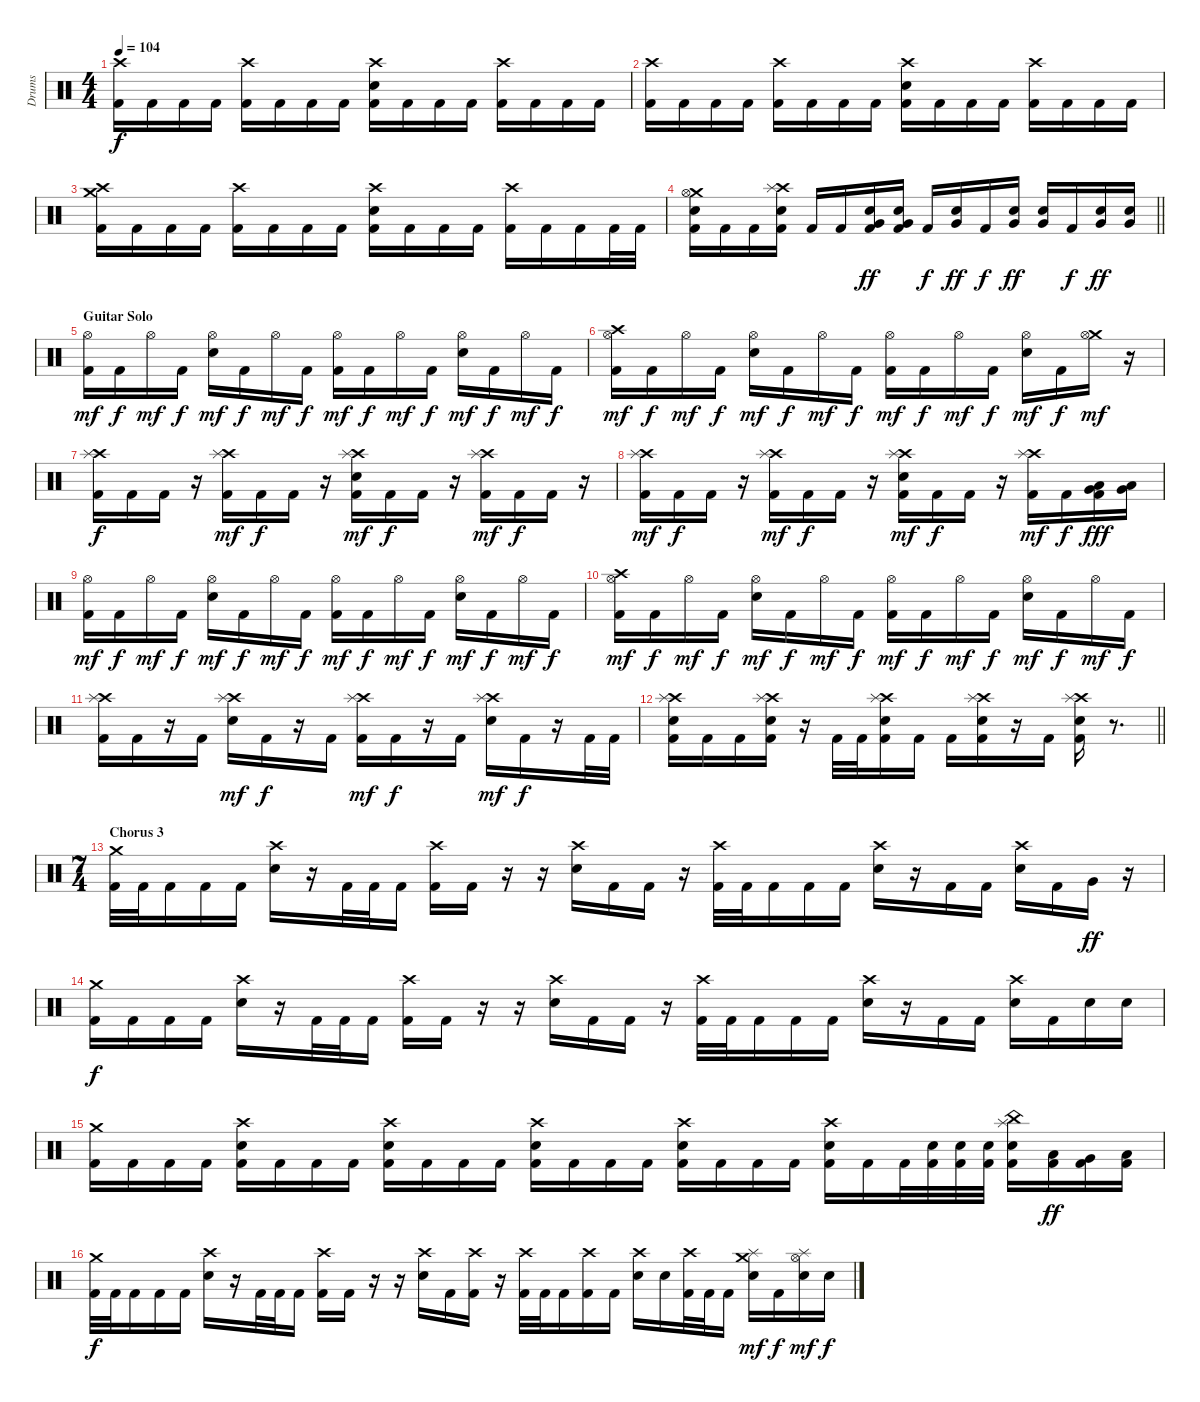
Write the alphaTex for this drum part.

\track ("Drums" "Drums") {instrument percussion}
\staff {score}
\articulation defaults
\ts (4 4)
\tempo 104
\clef neutral
\ks c
("Crash high (hit)" "Kick (hit) 2").16{dy f} "Kick (hit) 2".16 "Kick (hit) 2".16 "Kick (hit) 2".16 ("Crash high (hit)" "Kick (hit) 2").16 "Kick (hit) 2".16 "Kick (hit) 2".16 "Kick (hit) 2".16 ("Crash high (hit)" "Snare (hit) 2" "Kick (hit) 2").16 "Kick (hit) 2".16 "Kick (hit) 2".16 "Kick (hit) 2".16 ("Crash high (hit)" "Kick (hit) 2").16 "Kick (hit) 2".16 "Kick (hit) 2".16 "Kick (hit) 2".16 |
("Crash high (hit)" "Kick (hit) 2").16 "Kick (hit) 2".16 "Kick (hit) 2".16 "Kick (hit) 2".16 ("Crash high (hit)" "Kick (hit) 2").16 "Kick (hit) 2".16 "Kick (hit) 2".16 "Kick (hit) 2".16 ("Crash high (hit)" "Snare (hit) 2" "Kick (hit) 2").16 "Kick (hit) 2".16 "Kick (hit) 2".16 "Kick (hit) 2".16 ("Crash high (hit)" "Kick (hit) 2").16 "Kick (hit) 2".16 "Kick (hit) 2".16 "Kick (hit) 2".16 |
("Crash high (hit)" "Crash medium (hit)" "Kick (hit) 2").16 "Kick (hit) 2".16 "Kick (hit) 2".16 "Kick (hit) 2".16 ("Crash high (hit)" "Kick (hit) 2").16 "Kick (hit) 2".16 "Kick (hit) 2".16 "Kick (hit) 2".16 ("Crash high (hit)" "Snare (hit) 2" "Kick (hit) 2").16 "Kick (hit) 2".16 "Kick (hit) 2".16 "Kick (hit) 2".16 ("Crash high (hit)" "Kick (hit) 2").16 "Kick (hit) 2".16 "Kick (hit) 2".16 "Kick (hit) 2".32 "Kick (hit) 2".32 |
\barLineRight lightlight
("Crash medium (hit)" "Hi-Hat (open)" "Snare (hit) 2" "Kick (hit) 2").16 "Kick (hit) 2".16 "Kick (hit) 2".16 ("Crash high (hit)" "Splash (hit)" "Snare (hit) 2" "Kick (hit) 2").16 "Kick (hit) 2".16 "Kick (hit) 2".16 ("Very Low Tom (hit)" "Snare (hit) 2" "Kick (hit) 2").16{dy ff} ("Very Low Tom (hit)" "Snare (hit) 2" "Kick (hit) 2").16 "Kick (hit) 2".16{dy f} ("Very Low Tom (hit)" "Snare (hit) 2").16{dy ff} "Kick (hit) 2".16{dy f} ("Very Low Tom (hit)" "Snare (hit) 2").16{dy ff} ("Very Low Tom (hit)" "Snare (hit) 2").16 "Kick (hit) 2".16{dy f} ("Very Low Tom (hit)" "Snare (hit) 2").16{dy ff} ("Very Low Tom (hit)" "Snare (hit) 2").16 |
\section ("" "Guitar Solo")
("Hi-Hat (open)" "Kick (hit) 2").16{dy mf} "Kick (hit) 2".16{dy f} "Hi-Hat (open)".16{dy mf} "Kick (hit) 2".16{dy f} ("Hi-Hat (open)" "Snare (hit) 2").16{dy mf} "Kick (hit) 2".16{dy f} "Hi-Hat (open)".16{dy mf} "Kick (hit) 2".16{dy f} ("Hi-Hat (open)" "Kick (hit) 2").16{dy mf} "Kick (hit) 2".16{dy f} "Hi-Hat (open)".16{dy mf} "Kick (hit) 2".16{dy f} ("Hi-Hat (open)" "Snare (hit) 2").16{dy mf} "Kick (hit) 2".16{dy f} "Hi-Hat (open)".16{dy mf} "Kick (hit) 2".16{dy f} |
("Crash high (hit)" "Hi-Hat (open)" "Kick (hit) 2").16{dy mf} "Kick (hit) 2".16{dy f} "Hi-Hat (open)".16{dy mf} "Kick (hit) 2".16{dy f} ("Hi-Hat (open)" "Snare (hit) 2").16{dy mf} "Kick (hit) 2".16{dy f} "Hi-Hat (open)".16{dy mf} "Kick (hit) 2".16{dy f} ("Hi-Hat (open)" "Kick (hit) 2").16{dy mf} "Kick (hit) 2".16{dy f} "Hi-Hat (open)".16{dy mf} "Kick (hit) 2".16{dy f} ("Hi-Hat (open)" "Snare (hit) 2").16{dy mf} "Kick (hit) 2".16{dy f} ("Crash medium (hit)" "Hi-Hat (open)").16{dy mf} r.16 |
("Crash high (hit)" "Splash (hit)" "Kick (hit) 2").16{dy f} "Kick (hit) 2".16 "Kick (hit) 2".16 r.16 ("Crash high (hit)" "Splash (hit)" "Kick (hit) 2").16{dy mf} "Kick (hit) 2".16{dy f} "Kick (hit) 2".16 r.16 ("Crash high (hit)" "Splash (hit)" "Snare (hit) 2" "Kick (hit) 2").16{dy mf} "Kick (hit) 2".16{dy f} "Kick (hit) 2".16 r.16 ("Crash high (hit)" "Splash (hit)" "Kick (hit) 2").16{dy mf} "Kick (hit) 2".16{dy f} "Kick (hit) 2".16 r.16 |
("Crash high (hit)" "Splash (hit)" "Kick (hit) 2").16{dy mf} "Kick (hit) 2".16{dy f} "Kick (hit) 2".16 r.16 ("Crash high (hit)" "Splash (hit)" "Kick (hit) 2").16{dy mf} "Kick (hit) 2".16{dy f} "Kick (hit) 2".16 r.16 ("Crash high (hit)" "Splash (hit)" "Snare (hit) 2" "Kick (hit) 2").16{dy mf} "Kick (hit) 2".16{dy f} "Kick (hit) 2".16 r.16 ("Crash high (hit)" "Splash (hit)" "Kick (hit) 2").16{dy mf} "Kick (hit) 2".16{dy f} ("Very Low Tom (hit)" "Low Floor Tom (hit)" "Kick (hit) 2").16{dy fff} ("Very Low Tom (hit)" "Low Floor Tom (hit)").16 |
("Hi-Hat (open)" "Kick (hit) 2").16{dy mf} "Kick (hit) 2".16{dy f} "Hi-Hat (open)".16{dy mf} "Kick (hit) 2".16{dy f} ("Hi-Hat (open)" "Snare (hit) 2").16{dy mf} "Kick (hit) 2".16{dy f} "Hi-Hat (open)".16{dy mf} "Kick (hit) 2".16{dy f} ("Hi-Hat (open)" "Kick (hit) 2").16{dy mf} "Kick (hit) 2".16{dy f} "Hi-Hat (open)".16{dy mf} "Kick (hit) 2".16{dy f} ("Hi-Hat (open)" "Snare (hit) 2").16{dy mf} "Kick (hit) 2".16{dy f} "Hi-Hat (open)".16{dy mf} "Kick (hit) 2".16{dy f} |
("Crash high (hit)" "Hi-Hat (open)" "Kick (hit) 2").16{dy mf} "Kick (hit) 2".16{dy f} "Hi-Hat (open)".16{dy mf} "Kick (hit) 2".16{dy f} ("Hi-Hat (open)" "Snare (hit) 2").16{dy mf} "Kick (hit) 2".16{dy f} "Hi-Hat (open)".16{dy mf} "Kick (hit) 2".16{dy f} ("Hi-Hat (open)" "Kick (hit) 2").16{dy mf} "Kick (hit) 2".16{dy f} "Hi-Hat (open)".16{dy mf} "Kick (hit) 2".16{dy f} ("Hi-Hat (open)" "Snare (hit) 2").16{dy mf} "Kick (hit) 2".16{dy f} "Hi-Hat (open)".16{dy mf} "Kick (hit) 2".16{dy f} |
("Crash high (hit)" "Splash (hit)" "Kick (hit) 2").16 "Kick (hit) 2".16 r.16 "Kick (hit) 2".16 ("Crash high (hit)" "Splash (hit)" "Snare (hit) 2").16{dy mf} "Kick (hit) 2".16{dy f} r.16 "Kick (hit) 2".16 ("Crash high (hit)" "Splash (hit)" "Kick (hit) 2").16{dy mf} "Kick (hit) 2".16{dy f} r.16 "Kick (hit) 2".16 ("Crash high (hit)" "Splash (hit)" "Snare (hit) 2").16{dy mf} "Kick (hit) 2".16{dy f} r.16 "Kick (hit) 2".32 "Kick (hit) 2".32 |
\barLineRight lightlight
("Crash high (hit)" "Splash (hit)" "Snare (hit) 2" "Kick (hit) 2").16 "Kick (hit) 2".16 "Kick (hit) 2".16 ("Crash high (hit)" "Splash (hit)" "Snare (hit) 2" "Kick (hit) 2").16 r.16 "Kick (hit) 2".32 "Kick (hit) 2".32 ("Crash high (hit)" "Splash (hit)" "Snare (hit) 2" "Kick (hit) 2").16 "Kick (hit) 2".16 "Kick (hit) 2".16 ("Crash high (hit)" "Splash (hit)" "Snare (hit) 2" "Kick (hit) 2").16 r.16 "Kick (hit) 2".16 ("Crash high (hit)" "Splash (hit)" "Snare (hit) 2" "Kick (hit) 2").16 r.8{d} |
\ts (7 4)
\section ("" "Chorus 3")
("Crash medium (hit)" "Kick (hit) 2").32 "Kick (hit) 2".32 "Kick (hit) 2".16 "Kick (hit) 2".16 "Kick (hit) 2".16 ("Crash high (hit)" "Snare (hit) 2").16 r.16 "Kick (hit) 2".32 "Kick (hit) 2".32 "Kick (hit) 2".16 ("Crash high (hit)" "Kick (hit) 2").16 "Kick (hit) 2".16 r.16 r.16 ("Crash high (hit)" "Snare (hit) 2").16 "Kick (hit) 2".16 "Kick (hit) 2".16 r.16 ("Crash high (hit)" "Kick (hit) 2").32 "Kick (hit) 2".32 "Kick (hit) 2".16 "Kick (hit) 2".16 "Kick (hit) 2".16 ("Crash high (hit)" "Snare (hit) 2").16 r.16 "Kick (hit) 2".16 "Kick (hit) 2".16 ("Crash high (hit)" "Snare (hit) 2").16 "Kick (hit) 2".16 "Very Low Tom (hit)".16{dy ff} r.16 |
("Crash medium (hit)" "Kick (hit) 2").16{dy f} "Kick (hit) 2".16 "Kick (hit) 2".16 "Kick (hit) 2".16 ("Crash high (hit)" "Snare (hit) 2").16 r.16 "Kick (hit) 2".32 "Kick (hit) 2".32 "Kick (hit) 2".16 ("Crash high (hit)" "Kick (hit) 2").16 "Kick (hit) 2".16 r.16 r.16 ("Crash high (hit)" "Snare (hit) 2").16 "Kick (hit) 2".16 "Kick (hit) 2".16 r.16 ("Crash high (hit)" "Kick (hit) 2").32 "Kick (hit) 2".32 "Kick (hit) 2".16 "Kick (hit) 2".16 "Kick (hit) 2".16 ("Crash high (hit)" "Snare (hit) 2").16 r.16 "Kick (hit) 2".16 "Kick (hit) 2".16 ("Crash high (hit)" "Snare (hit) 2").16 "Kick (hit) 2".16 "Snare (hit) 2".16 "Snare (hit) 2".16 |
("Crash medium (hit)" "Kick (hit) 2").16 "Kick (hit) 2".16 "Kick (hit) 2".16 "Kick (hit) 2".16 ("Crash high (hit)" "Snare (hit) 2" "Kick (hit) 2").16 "Kick (hit) 2".16 "Kick (hit) 2".16 "Kick (hit) 2".16 ("Crash high (hit)" "Snare (hit) 2" "Kick (hit) 2").16 "Kick (hit) 2".16 "Kick (hit) 2".16 "Kick (hit) 2".16 ("Crash high (hit)" "Snare (hit) 2" "Kick (hit) 2").16 "Kick (hit) 2".16 "Kick (hit) 2".16 "Kick (hit) 2".16 ("Crash high (hit)" "Snare (hit) 2" "Kick (hit) 2").16 "Kick (hit) 2".16 "Kick (hit) 2".16 "Kick (hit) 2".16 ("Crash high (hit)" "Snare (hit) 2" "Kick (hit) 2").16 "Kick (hit) 2".16 "Kick (hit) 2".32 ("Snare (hit) 2" "Kick (hit) 2").32 ("Snare (hit) 2" "Kick (hit) 2").32 ("Snare (hit) 2" "Kick (hit) 2").32 ("China (hit)" "Splash (hit)" "Snare (hit) 2" "Kick (hit) 2").16 ("Low Tom (hit)" "Kick (hit) 2").16{dy ff} ("Very Low Tom (hit)" "Kick (hit) 2").16 ("Low Floor Tom (hit)" "Kick (hit) 2").16 |
("Crash medium (hit)" "Kick (hit) 2").32{dy f} "Kick (hit) 2".32 "Kick (hit) 2".16 "Kick (hit) 2".16 "Kick (hit) 2".16 ("Crash high (hit)" "Snare (hit) 2").16 r.16 "Kick (hit) 2".32 "Kick (hit) 2".32 "Kick (hit) 2".16 ("Crash high (hit)" "Kick (hit) 2").16 "Kick (hit) 2".16 r.16 r.16 ("Crash high (hit)" "Snare (hit) 2").16 "Kick (hit) 2".16 ("Crash high (hit)" "Kick (hit) 2").16 r.16 ("Crash high (hit)" "Kick (hit) 2").32 "Kick (hit) 2".32 "Kick (hit) 2".16 ("Crash high (hit)" "Kick (hit) 2").16 "Kick (hit) 2".16 ("Crash high (hit)" "Snare (hit) 2").16 "Snare (hit) 2".16 ("Crash high (hit)" "Kick (hit) 2").32 "Kick (hit) 2".32 "Kick (hit) 2".16 ("Crash medium (hit)" "Splash (hit)" "Snare (hit) 2").16{dy mf} "Kick (hit) 2".16{dy f} ("Splash (hit)" "Hi-Hat (open)" "Snare (hit) 2").16{dy mf} "Snare (hit) 2".16{dy f}
